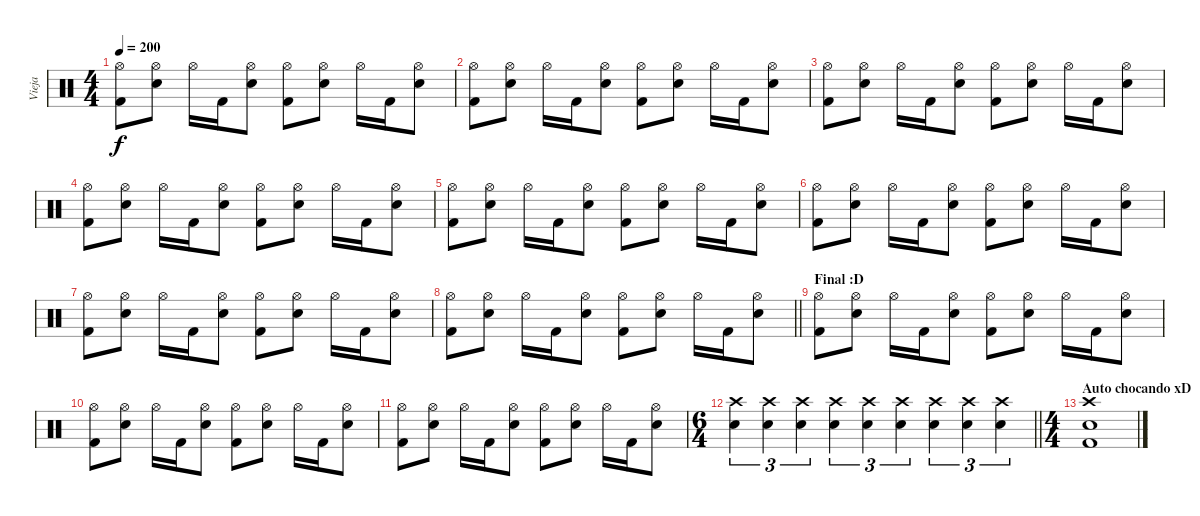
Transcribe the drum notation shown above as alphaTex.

\track ("Vieja" "Vieja") {instrument percussion}
\staff {score}
\articulation defaults
\ts (4 4)
\tempo 200
\clef neutral
\ks c
("Hi-Hat (open)" "Kick (hit) 2").8{dy f} ("Hi-Hat (open)" "Electric Snare (hit)").8 "Hi-Hat (open)".16 "Kick (hit) 2".16 ("Hi-Hat (open)" "Electric Snare (hit)").8 ("Hi-Hat (open)" "Kick (hit) 2").8 ("Hi-Hat (open)" "Electric Snare (hit)").8 "Hi-Hat (open)".16 "Kick (hit) 2".16 ("Hi-Hat (open)" "Electric Snare (hit)").8 |
("Hi-Hat (open)" "Kick (hit) 2").8 ("Hi-Hat (open)" "Electric Snare (hit)").8 "Hi-Hat (open)".16 "Kick (hit) 2".16 ("Hi-Hat (open)" "Electric Snare (hit)").8 ("Hi-Hat (open)" "Kick (hit) 2").8 ("Hi-Hat (open)" "Electric Snare (hit)").8 "Hi-Hat (open)".16 "Kick (hit) 2".16 ("Hi-Hat (open)" "Electric Snare (hit)").8 |
("Hi-Hat (open)" "Kick (hit) 2").8 ("Hi-Hat (open)" "Electric Snare (hit)").8 "Hi-Hat (open)".16 "Kick (hit) 2".16 ("Hi-Hat (open)" "Electric Snare (hit)").8 ("Hi-Hat (open)" "Kick (hit) 2").8 ("Hi-Hat (open)" "Electric Snare (hit)").8 "Hi-Hat (open)".16 "Kick (hit) 2".16 ("Hi-Hat (open)" "Electric Snare (hit)").8 |
("Hi-Hat (open)" "Kick (hit) 2").8 ("Hi-Hat (open)" "Electric Snare (hit)").8 "Hi-Hat (open)".16 "Kick (hit) 2".16 ("Hi-Hat (open)" "Electric Snare (hit)").8 ("Hi-Hat (open)" "Kick (hit) 2").8 ("Hi-Hat (open)" "Electric Snare (hit)").8 "Hi-Hat (open)".16 "Kick (hit) 2".16 ("Hi-Hat (open)" "Electric Snare (hit)").8 |
("Hi-Hat (open)" "Kick (hit) 2").8 ("Hi-Hat (open)" "Electric Snare (hit)").8 "Hi-Hat (open)".16 "Kick (hit) 2".16 ("Hi-Hat (open)" "Electric Snare (hit)").8 ("Hi-Hat (open)" "Kick (hit) 2").8 ("Hi-Hat (open)" "Electric Snare (hit)").8 "Hi-Hat (open)".16 "Kick (hit) 2".16 ("Hi-Hat (open)" "Electric Snare (hit)").8 |
("Hi-Hat (open)" "Kick (hit) 2").8 ("Hi-Hat (open)" "Electric Snare (hit)").8 "Hi-Hat (open)".16 "Kick (hit) 2".16 ("Hi-Hat (open)" "Electric Snare (hit)").8 ("Hi-Hat (open)" "Kick (hit) 2").8 ("Hi-Hat (open)" "Electric Snare (hit)").8 "Hi-Hat (open)".16 "Kick (hit) 2".16 ("Hi-Hat (open)" "Electric Snare (hit)").8 |
("Hi-Hat (open)" "Kick (hit) 2").8 ("Hi-Hat (open)" "Electric Snare (hit)").8 "Hi-Hat (open)".16 "Kick (hit) 2".16 ("Hi-Hat (open)" "Electric Snare (hit)").8 ("Hi-Hat (open)" "Kick (hit) 2").8 ("Hi-Hat (open)" "Electric Snare (hit)").8 "Hi-Hat (open)".16 "Kick (hit) 2".16 ("Hi-Hat (open)" "Electric Snare (hit)").8 |
\barLineRight lightlight
("Hi-Hat (open)" "Kick (hit) 2").8 ("Hi-Hat (open)" "Electric Snare (hit)").8 "Hi-Hat (open)".16 "Kick (hit) 2".16 ("Hi-Hat (open)" "Electric Snare (hit)").8 ("Hi-Hat (open)" "Kick (hit) 2").8 ("Hi-Hat (open)" "Electric Snare (hit)").8 "Hi-Hat (open)".16 "Kick (hit) 2".16 ("Hi-Hat (open)" "Electric Snare (hit)").8 |
\section ("" "Final :D")
("Hi-Hat (open)" "Kick (hit) 2").8 ("Hi-Hat (open)" "Electric Snare (hit)").8 "Hi-Hat (open)".16 "Kick (hit) 2".16 ("Hi-Hat (open)" "Electric Snare (hit)").8 ("Hi-Hat (open)" "Kick (hit) 2").8 ("Hi-Hat (open)" "Electric Snare (hit)").8 "Hi-Hat (open)".16 "Kick (hit) 2".16 ("Hi-Hat (open)" "Electric Snare (hit)").8 |
("Hi-Hat (open)" "Kick (hit) 2").8 ("Hi-Hat (open)" "Electric Snare (hit)").8 "Hi-Hat (open)".16 "Kick (hit) 2".16 ("Hi-Hat (open)" "Electric Snare (hit)").8 ("Hi-Hat (open)" "Kick (hit) 2").8 ("Hi-Hat (open)" "Electric Snare (hit)").8 "Hi-Hat (open)".16 "Kick (hit) 2".16 ("Hi-Hat (open)" "Electric Snare (hit)").8 |
("Hi-Hat (open)" "Kick (hit) 2").8 ("Hi-Hat (open)" "Electric Snare (hit)").8 "Hi-Hat (open)".16 "Kick (hit) 2".16 ("Hi-Hat (open)" "Electric Snare (hit)").8 ("Hi-Hat (open)" "Kick (hit) 2").8 ("Hi-Hat (open)" "Electric Snare (hit)").8 "Hi-Hat (open)".16 "Kick (hit) 2".16 ("Hi-Hat (open)" "Electric Snare (hit)").8 |
\ts (6 4)
\barLineRight lightlight
("Crash high (hit)" "Electric Snare (hit)").4{tu (3 2)} ("Crash high (hit)" "Electric Snare (hit)").4{tu (3 2)} ("Crash high (hit)" "Electric Snare (hit)").4{tu (3 2)} ("Crash high (hit)" "Electric Snare (hit)").4{tu (3 2)} ("Crash high (hit)" "Electric Snare (hit)").4{tu (3 2)} ("Crash high (hit)" "Electric Snare (hit)").4{tu (3 2)} ("Crash high (hit)" "Electric Snare (hit)").4{tu (3 2)} ("Crash high (hit)" "Electric Snare (hit)").4{tu (3 2)} ("Crash high (hit)" "Electric Snare (hit)").4{tu (3 2)} |
\ts (4 4)
\section ("" "Auto chocando xD")
("Crash high (hit)" "Electric Snare (hit)" "Kick (hit) 2").1
